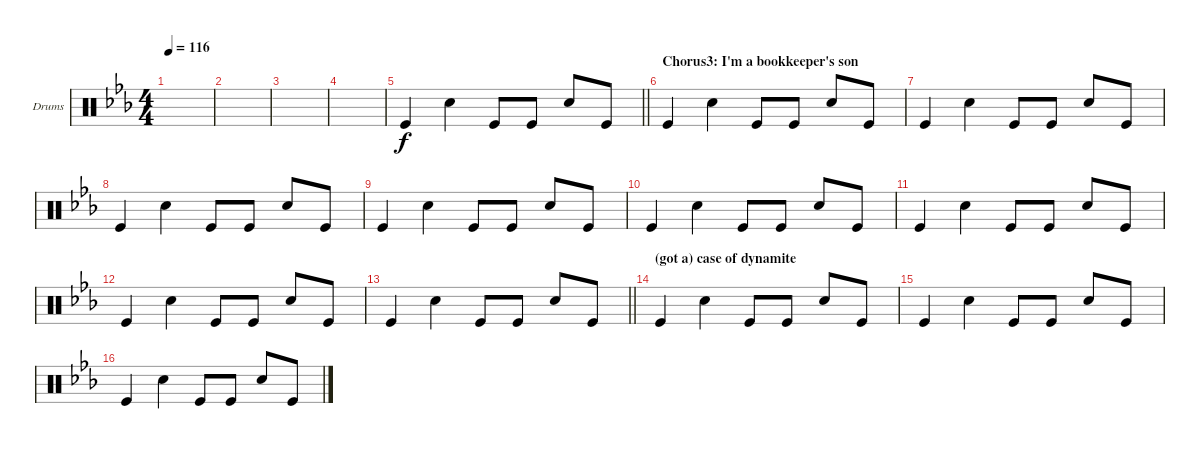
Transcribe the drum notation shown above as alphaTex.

\defaultSystemsLayout 4
\bracketExtendMode groupsimilarinstruments
\firstSystemTrackNameOrientation horizontal
\otherSystemsTrackNameOrientation horizontal
\track ("Drumkit" "Drums") {instrument percussion}
\staff {score}
\articulation defaults
\ts (4 4)
\tempo 116
\clef neutral
\ks cminor
|
|
|
\scale
0.21031 |
\scale
0.520171
\barLineRight lightlight "Kick (hit)".4 "Snare (hit) 2".4 "Kick (hit)".8 "Kick (hit)".8 "Snare (hit) 2".8 "Kick (hit)".8
|
\section ("" "Chorus3: I'm a bookkeeper's son")
\scale
0.269865 "Kick (hit)".4 "Snare (hit) 2".4 "Kick (hit)".8 "Kick (hit)".8 "Snare (hit) 2".8 "Kick (hit)".8 |
\scale
0.396721 "Kick (hit)".4 "Snare (hit) 2".4 "Kick (hit)".8 "Kick (hit)".8 "Snare (hit) 2".8 "Kick (hit)".8 |
\scale
0.325254 "Kick (hit)".4 "Snare (hit) 2".4 "Kick (hit)".8 "Kick (hit)".8 "Snare (hit) 2".8 "Kick (hit)".8 |
\scale
0.278005 "Kick (hit)".4 "Snare (hit) 2".4 "Kick (hit)".8 "Kick (hit)".8 "Snare (hit) 2".8 "Kick (hit)".8 |
"Kick (hit)".4 "Snare (hit) 2".4 "Kick (hit)".8 "Kick (hit)".8 "Snare (hit) 2".8 "Kick (hit)".8 |
"Kick (hit)".4 "Snare (hit) 2".4 "Kick (hit)".8 "Kick (hit)".8 "Snare (hit) 2".8 "Kick (hit)".8 |
"Kick (hit)".4 "Snare (hit) 2".4 "Kick (hit)".8 "Kick (hit)".8 "Snare (hit) 2".8 "Kick (hit)".8 |
\scale
0.533592
\barLineRight lightlight "Kick (hit)".4 "Snare (hit) 2".4 "Kick (hit)".8 "Kick (hit)".8 "Snare (hit) 2".8 "Kick (hit)".8
|
\section ("" "(got a) case of dynamite")
\scale
0.202618 "Kick (hit)".4 "Snare (hit) 2".4 "Kick (hit)".8 "Kick (hit)".8 "Snare (hit) 2".8 "Kick (hit)".8 |
\scale
0.263875 "Kick (hit)".4 "Snare (hit) 2".4 "Kick (hit)".8 "Kick (hit)".8 "Snare (hit) 2".8 "Kick (hit)".8 |
"Kick (hit)".4 "Snare (hit) 2".4 "Kick (hit)".8 "Kick (hit)".8 "Snare (hit) 2".8 "Kick (hit)".8
